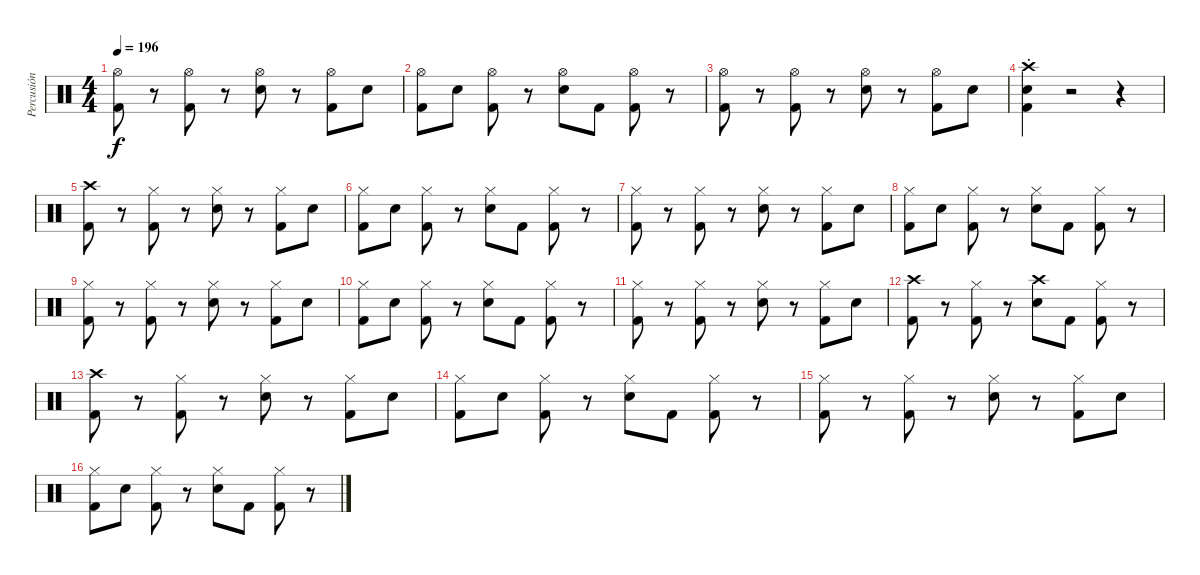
\track ("Percusión" "Percusión") {instrument percussion}
\staff {score}
\articulation defaults
\ts (4 4)
\tempo 196
\clef neutral
\ks c
("Hi-Hat (open)" "Kick (hit) 2").8{dy f} r.8 ("Hi-Hat (open)" "Kick (hit) 2").8 r.8 ("Hi-Hat (open)" "Snare (hit) 2").8 r.8 ("Hi-Hat (open)" "Kick (hit) 2").8 "Snare (hit) 2".8 |
("Hi-Hat (open)" "Kick (hit) 2").8 "Snare (hit) 2".8 ("Hi-Hat (open)" "Kick (hit) 2").8 r.8 ("Hi-Hat (open)" "Snare (hit) 2").8 "Kick (hit) 2".8 ("Hi-Hat (open)" "Kick (hit) 2").8 r.8 |
("Hi-Hat (open)" "Kick (hit) 2").8 r.8 ("Hi-Hat (open)" "Kick (hit) 2").8 r.8 ("Hi-Hat (open)" "Snare (hit) 2").8 r.8 ("Hi-Hat (open)" "Kick (hit) 2").8 "Snare (hit) 2".8 |
("Crash high (hit)" "Snare (hit) 2" "Kick (hit) 2"{st}).4 r.2 r.4 |
("Crash high (hit)" "Kick (hit) 2").8 r.8 ("Hi-Hat (closed)" "Kick (hit) 2").8 r.8 ("Hi-Hat (closed)" "Snare (hit) 2").8 r.8 ("Hi-Hat (closed)" "Kick (hit) 2").8 "Snare (hit) 2".8 |
("Hi-Hat (closed)" "Kick (hit) 2").8 "Snare (hit) 2".8 ("Hi-Hat (closed)" "Kick (hit) 2").8 r.8 ("Hi-Hat (closed)" "Snare (hit) 2").8 "Kick (hit) 2".8 ("Hi-Hat (closed)" "Kick (hit) 2").8 r.8 |
("Hi-Hat (closed)" "Kick (hit) 2").8 r.8 ("Hi-Hat (closed)" "Kick (hit) 2").8 r.8 ("Hi-Hat (closed)" "Snare (hit) 2").8 r.8 ("Hi-Hat (closed)" "Kick (hit) 2").8 "Snare (hit) 2".8 |
("Hi-Hat (closed)" "Kick (hit) 2").8 "Snare (hit) 2".8 ("Hi-Hat (closed)" "Kick (hit) 2").8 r.8 ("Hi-Hat (closed)" "Snare (hit) 2").8 "Kick (hit) 2".8 ("Hi-Hat (closed)" "Kick (hit) 2").8 r.8 |
("Hi-Hat (closed)" "Kick (hit) 2").8 r.8 ("Hi-Hat (closed)" "Kick (hit) 2").8 r.8 ("Hi-Hat (closed)" "Snare (hit) 2").8 r.8 ("Hi-Hat (closed)" "Kick (hit) 2").8 "Snare (hit) 2".8 |
("Hi-Hat (closed)" "Kick (hit) 2").8 "Snare (hit) 2".8 ("Hi-Hat (closed)" "Kick (hit) 2").8 r.8 ("Hi-Hat (closed)" "Snare (hit) 2").8 "Kick (hit) 2".8 ("Hi-Hat (closed)" "Kick (hit) 2").8 r.8 |
("Hi-Hat (closed)" "Kick (hit) 2").8 r.8 ("Hi-Hat (closed)" "Kick (hit) 2").8 r.8 ("Hi-Hat (closed)" "Snare (hit) 2").8 r.8 ("Hi-Hat (closed)" "Kick (hit) 2").8 "Snare (hit) 2".8 |
("Crash high (hit)" "Kick (hit) 2").8 r.8 ("Hi-Hat (closed)" "Kick (hit) 2").8 r.8 ("Crash high (hit)" "Snare (hit) 2").8 "Kick (hit) 2".8 ("Hi-Hat (closed)" "Kick (hit) 2").8 r.8 |
("Crash high (hit)" "Kick (hit) 2").8 r.8 ("Hi-Hat (closed)" "Kick (hit) 2").8 r.8 ("Hi-Hat (closed)" "Snare (hit) 2").8 r.8 ("Hi-Hat (closed)" "Kick (hit) 2").8 "Snare (hit) 2".8 |
("Hi-Hat (closed)" "Kick (hit) 2").8 "Snare (hit) 2".8 ("Hi-Hat (closed)" "Kick (hit) 2").8 r.8 ("Hi-Hat (closed)" "Snare (hit) 2").8 "Kick (hit) 2".8 ("Hi-Hat (closed)" "Kick (hit) 2").8 r.8 |
("Hi-Hat (closed)" "Kick (hit) 2").8 r.8 ("Hi-Hat (closed)" "Kick (hit) 2").8 r.8 ("Hi-Hat (closed)" "Snare (hit) 2").8 r.8 ("Hi-Hat (closed)" "Kick (hit) 2").8 "Snare (hit) 2".8 |
("Hi-Hat (closed)" "Kick (hit) 2").8 "Snare (hit) 2".8 ("Hi-Hat (closed)" "Kick (hit) 2").8 r.8 ("Hi-Hat (closed)" "Snare (hit) 2").8 "Kick (hit) 2".8 ("Hi-Hat (closed)" "Kick (hit) 2").8 r.8
